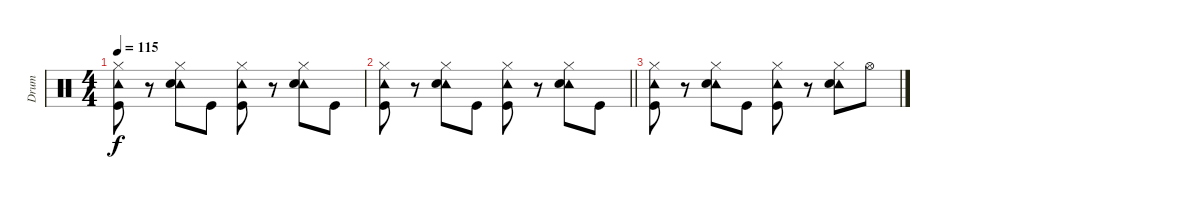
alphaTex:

\track ("Drum" "Drum") {instrument percussion}
\staff {score}
\articulation defaults
\ts (4 4)
\tempo 115
\clef neutral
\ks c
("Hi-Hat (closed)" "Tambourine (hit)" "Kick (hit)").8{dy f} r.8 ("Hi-Hat (closed)" "Tambourine (hit)" "Snare (hit) 2").8 "Kick (hit)".8 ("Hi-Hat (closed)" "Tambourine (hit)" "Kick (hit)").8 r.8 ("Hi-Hat (closed)" "Tambourine (hit)" "Snare (hit) 2").8 "Kick (hit)".8 |
\barLineRight lightlight
("Hi-Hat (closed)" "Tambourine (hit)" "Kick (hit)").8 r.8 ("Hi-Hat (closed)" "Tambourine (hit)" "Snare (hit) 2").8 "Kick (hit)".8 ("Hi-Hat (closed)" "Tambourine (hit)" "Kick (hit)").8 r.8 ("Hi-Hat (closed)" "Tambourine (hit)" "Snare (hit) 2").8 "Kick (hit)".8 |
("Hi-Hat (closed)" "Tambourine (hit)" "Kick (hit)").8 r.8 ("Hi-Hat (closed)" "Tambourine (hit)" "Snare (hit) 2").8 "Kick (hit)".8 ("Hi-Hat (closed)" "Tambourine (hit)" "Kick (hit)").8 r.8 ("Hi-Hat (closed)" "Tambourine (hit)" "Snare (hit) 2").8 "Hi-Hat (open)".8
